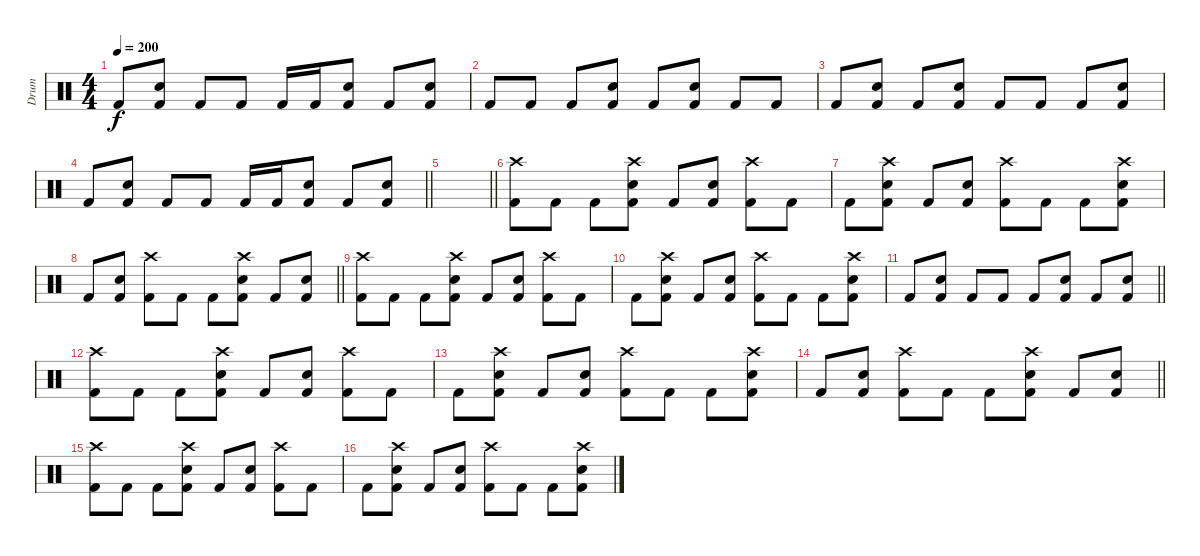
\track ("Drum" "Drum") {instrument percussion}
\staff {score}
\articulation defaults
\ts (4 4)
\tempo 200
\clef neutral
\ks c "Kick (hit) 2".8{dy f}
("Snare (hit) 2" "Kick (hit) 2").8 "Kick (hit) 2".8 "Kick (hit) 2".8 "Kick (hit) 2".16 "Kick (hit) 2".16 ("Snare (hit) 2" "Kick (hit) 2").8 "Kick (hit) 2".8 ("Snare (hit) 2" "Kick (hit) 2").8 |
"Kick (hit) 2".8 "Kick (hit) 2".8 "Kick (hit) 2".8 ("Snare (hit) 2" "Kick (hit) 2").8 "Kick (hit) 2".8 ("Snare (hit) 2" "Kick (hit) 2").8 "Kick (hit) 2".8 "Kick (hit) 2".8 |
"Kick (hit) 2".8 ("Snare (hit) 2" "Kick (hit) 2").8 "Kick (hit) 2".8 ("Snare (hit) 2" "Kick (hit) 2").8 "Kick (hit) 2".8 "Kick (hit) 2".8 "Kick (hit) 2".8 ("Snare (hit) 2" "Kick (hit) 2").8 |
\barLineRight lightlight "Kick (hit) 2".8
("Snare (hit) 2" "Kick (hit) 2").8 "Kick (hit) 2".8 "Kick (hit) 2".8 "Kick (hit) 2".16 "Kick (hit) 2".16 ("Snare (hit) 2" "Kick (hit) 2").8 "Kick (hit) 2".8 ("Snare (hit) 2" "Kick (hit) 2").8 |
\section ("" " ")
\barLineRight lightlight
|
\section ("" " ")
("Crash high (hit)" "Kick (hit) 2").8 "Kick (hit) 2".8 "Kick (hit) 2".8 ("Snare (hit) 2" "Crash high (hit)" "Kick (hit) 2").8 "Kick (hit) 2".8 ("Snare (hit) 2" "Kick (hit) 2").8 ("Crash high (hit)" "Kick (hit) 2").8 "Kick (hit) 2".8 |
"Kick (hit) 2".8 ("Snare (hit) 2" "Crash high (hit)" "Kick (hit) 2").8 "Kick (hit) 2".8 ("Snare (hit) 2" "Kick (hit) 2").8 ("Crash high (hit)" "Kick (hit) 2").8 "Kick (hit) 2".8 "Kick (hit) 2".8 ("Snare (hit) 2" "Crash high (hit)" "Kick (hit) 2").8 |
\barLineRight lightlight "Kick (hit) 2".8
("Snare (hit) 2" "Kick (hit) 2").8 ("Crash high (hit)" "Kick (hit) 2").8 "Kick (hit) 2".8 "Kick (hit) 2".8 ("Snare (hit) 2" "Crash high (hit)" "Kick (hit) 2").8 "Kick (hit) 2".8 ("Snare (hit) 2" "Kick (hit) 2").8 |
("Crash high (hit)" "Kick (hit) 2").8 "Kick (hit) 2".8 "Kick (hit) 2".8 ("Snare (hit) 2" "Crash high (hit)" "Kick (hit) 2").8 "Kick (hit) 2".8 ("Snare (hit) 2" "Kick (hit) 2").8 ("Crash high (hit)" "Kick (hit) 2").8 "Kick (hit) 2".8 |
"Kick (hit) 2".8 ("Snare (hit) 2" "Crash high (hit)" "Kick (hit) 2").8 "Kick (hit) 2".8 ("Snare (hit) 2" "Kick (hit) 2").8 ("Crash high (hit)" "Kick (hit) 2").8 "Kick (hit) 2".8 "Kick (hit) 2".8 ("Snare (hit) 2" "Crash high (hit)" "Kick (hit) 2").8 |
\barLineRight lightlight "Kick (hit) 2".8
("Electric Snare (hit)" "Kick (hit) 2").8 "Kick (hit) 2".8 "Kick (hit) 2".8 "Kick (hit) 2".8 ("Electric Snare (hit)" "Kick (hit) 2").8 "Kick (hit) 2".8 ("Electric Snare (hit)" "Kick (hit) 2").8 |
("Crash high (hit)" "Kick (hit) 2").8 "Kick (hit) 2".8 "Kick (hit) 2".8 ("Snare (hit) 2" "Crash high (hit)" "Kick (hit) 2").8 "Kick (hit) 2".8 ("Snare (hit) 2" "Kick (hit) 2").8 ("Crash high (hit)" "Kick (hit) 2").8 "Kick (hit) 2".8 |
"Kick (hit) 2".8 ("Snare (hit) 2" "Crash high (hit)" "Kick (hit) 2").8 "Kick (hit) 2".8 ("Snare (hit) 2" "Kick (hit) 2").8 ("Crash high (hit)" "Kick (hit) 2").8 "Kick (hit) 2".8 "Kick (hit) 2".8 ("Snare (hit) 2" "Crash high (hit)" "Kick (hit) 2").8 |
\barLineRight lightlight "Kick (hit) 2".8
("Snare (hit) 2" "Kick (hit) 2").8 ("Crash high (hit)" "Kick (hit) 2").8 "Kick (hit) 2".8 "Kick (hit) 2".8 ("Snare (hit) 2" "Crash high (hit)" "Kick (hit) 2").8 "Kick (hit) 2".8 ("Snare (hit) 2" "Kick (hit) 2").8 |
("Crash high (hit)" "Kick (hit) 2").8 "Kick (hit) 2".8 "Kick (hit) 2".8 ("Snare (hit) 2" "Crash high (hit)" "Kick (hit) 2").8 "Kick (hit) 2".8 ("Snare (hit) 2" "Kick (hit) 2").8 ("Crash high (hit)" "Kick (hit) 2").8 "Kick (hit) 2".8 |
"Kick (hit) 2".8 ("Snare (hit) 2" "Crash high (hit)" "Kick (hit) 2").8 "Kick (hit) 2".8 ("Snare (hit) 2" "Kick (hit) 2").8 ("Crash high (hit)" "Kick (hit) 2").8 "Kick (hit) 2".8 "Kick (hit) 2".8 ("Snare (hit) 2" "Crash high (hit)" "Kick (hit) 2").8
